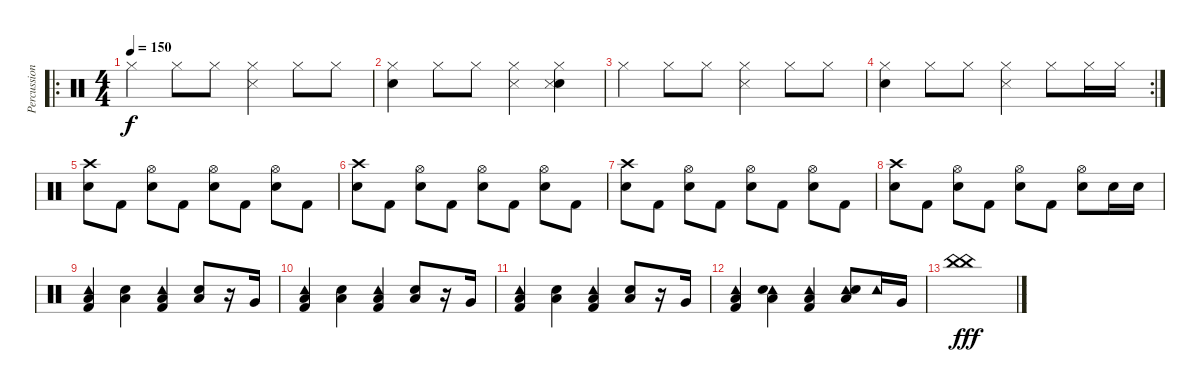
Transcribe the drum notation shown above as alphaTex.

\track ("Percussion" "Percussion") {instrument percussion}
\staff {score}
\articulation defaults
\ro
\ts (4 4)
\tempo 150
\clef neutral
\ks c "Hi-Hat (closed)".4{dy f} "Hi-Hat (closed)".8 "Hi-Hat (closed)".8
("Snare (side stick) 3" "Hi-Hat (closed)").4 "Hi-Hat (closed)".8 "Hi-Hat (closed)".8 |
("Hand Clap (hit)" "Hi-Hat (closed)").4 "Hi-Hat (closed)".8 "Hi-Hat (closed)".8 ("Snare (side stick) 3" "Hi-Hat (closed)").4 ("Hand Clap (hit)" "Snare (side stick) 3" "Hi-Hat (closed)").4 |
"Hi-Hat (closed)".4 "Hi-Hat (closed)".8 "Hi-Hat (closed)".8 ("Snare (side stick) 3" "Hi-Hat (closed)").4 "Hi-Hat (closed)".8 "Hi-Hat (closed)".8 |
\rc 2
("Hand Clap (hit)" "Hi-Hat (closed)").4 "Hi-Hat (closed)".8 "Hi-Hat (closed)".8 ("Snare (side stick) 3" "Hi-Hat (closed)").4 "Hi-Hat (closed)".8 "Hi-Hat (closed)".16 "Hi-Hat (closed)".16 |
("Crash high (hit)" "Snare (hit) 2").8 "Kick (hit) 2".8 ("Hi-Hat (open)" "Snare (hit) 2").8 "Kick (hit) 2".8 ("Hi-Hat (open)" "Snare (hit) 2").8 "Kick (hit) 2".8 ("Hi-Hat (open)" "Snare (hit) 2").8 "Kick (hit) 2".8 |
("Crash high (hit)" "Snare (hit) 2").8 "Kick (hit) 2".8 ("Hi-Hat (open)" "Snare (hit) 2").8 "Kick (hit) 2".8 ("Hi-Hat (open)" "Snare (hit) 2").8 "Kick (hit) 2".8 ("Hi-Hat (open)" "Snare (hit) 2").8 "Kick (hit) 2".8 |
("Crash high (hit)" "Snare (hit) 2").8 "Kick (hit) 2".8 ("Hi-Hat (open)" "Snare (hit) 2").8 "Kick (hit) 2".8 ("Hi-Hat (open)" "Snare (hit) 2").8 "Kick (hit) 2".8 ("Hi-Hat (open)" "Snare (hit) 2").8 "Kick (hit) 2".8 |
("Crash high (hit)" "Snare (hit) 2").8 "Kick (hit) 2".8 ("Hi-Hat (open)" "Snare (hit) 2").8 "Kick (hit) 2".8 ("Hi-Hat (open)" "Snare (hit) 2").8 "Kick (hit) 2".8 ("Hi-Hat (open)" "Snare (hit) 2").8 "Snare (hit) 2".16 "Snare (hit) 2".16 |
("Tambourine (hit)" "Low Tom (hit)" "Kick (hit) 2").4 ("Low Tom (hit)" "Snare (hit) 2").4 ("Tambourine (hit)" "Low Tom (hit)" "Kick (hit) 2").4 ("Low Tom (hit)" "Snare (hit) 2").8 r.16 "Very Low Tom (hit)".16 |
("Tambourine (hit)" "Low Tom (hit)" "Kick (hit) 2").4 ("Low Tom (hit)" "Snare (hit) 2").4 ("Tambourine (hit)" "Low Tom (hit)" "Kick (hit) 2").4 ("Low Tom (hit)" "Snare (hit) 2").8 r.16 "Very Low Tom (hit)".16 |
("Tambourine (hit)" "Low Tom (hit)" "Kick (hit) 2").4 ("Low Tom (hit)" "Snare (hit) 2").4 ("Tambourine (hit)" "Low Tom (hit)" "Kick (hit) 2").4 ("Low Tom (hit)" "Snare (hit) 2").8 r.16 "Very Low Tom (hit)".16 |
("Tambourine (hit)" "Low Tom (hit)" "Kick (hit) 2").4 ("Tambourine (hit)" "Low Tom (hit)" "Snare (hit) 2").4 ("Tambourine (hit)" "Low Tom (hit)" "Kick (hit) 2").4 ("Tambourine (hit)" "Low Tom (hit)" "Snare (hit) 2").8 "Tambourine (hit)".16 "Very Low Tom (hit)".16 |
("China (hit)" "China (hit)").1{dy fff volume 16}
